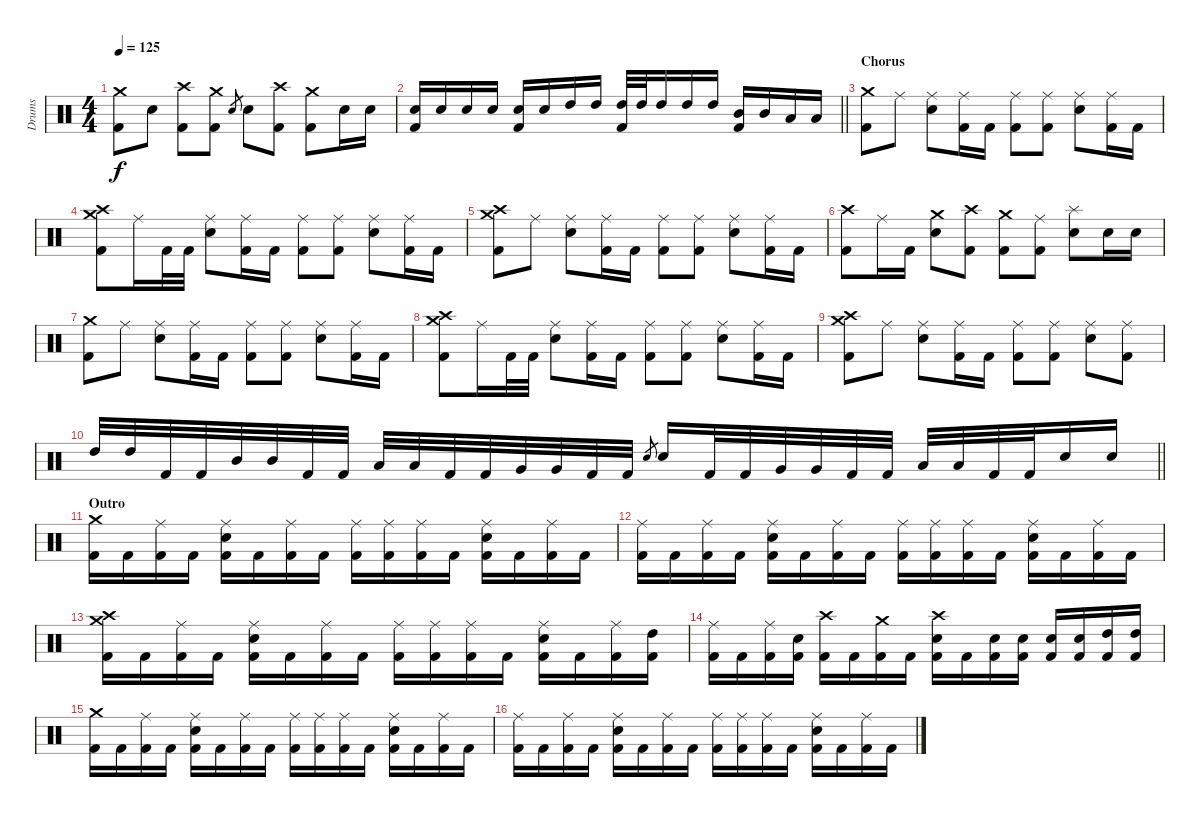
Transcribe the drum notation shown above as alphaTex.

\track ("Drums" "Drums") {instrument percussion}
\staff {score}
\articulation defaults
\ts (4 4)
\tempo 125
\clef neutral
\ks c
("Crash medium (hit)" "Kick (hit) 2").8{dy f} "Electric Snare (hit)".8 ("Crash high (hit)" "Kick (hit) 2").8 ("Crash medium (hit)" "Kick (hit) 2").8 "Electric Snare (hit)".8{gr} "Electric Snare (hit)".8 ("Crash high (hit)" "Kick (hit) 2").8 ("Crash medium (hit)" "Kick (hit) 2").8 "Electric Snare (hit)".16 "Electric Snare (hit)".16 |
\barLineRight lightlight
("Electric Snare (hit)" "Kick (hit) 2").16 "Electric Snare (hit)".16 "Electric Snare (hit)".16 "Electric Snare (hit)".16 ("Electric Snare (hit)" "Kick (hit) 2").16 "Electric Snare (hit)".16 "High Tom (hit)".16 "High Tom (hit)".16 ("High Tom (hit)" "Kick (hit) 2").32 "High Tom (hit)".32 "High Tom (hit)".16 "High Tom (hit)".16 "High Tom (hit)".16 ("Mid Tom (hit)" "Kick (hit) 2").16 "Mid Tom (hit)".16 "Low Tom (hit)".16 "Low Tom (hit)".16 |
\section ("" "Chorus")
("Crash medium (hit)" "Kick (hit) 2").8 "Ride (middle)".8 ("Ride (middle)" "Electric Snare (hit)").8 ("Ride (middle)" "Kick (hit) 2").16 "Kick (hit) 2".16 ("Ride (middle)" "Kick (hit) 2").8 ("Ride (middle)" "Kick (hit) 2").8 ("Ride (middle)" "Electric Snare (hit)").8 ("Ride (middle)" "Kick (hit) 2").16 "Kick (hit) 2".16 |
("Crash medium (hit)" "Crash high (hit)" "Kick (hit) 2").8 "Ride (middle)".16 "Kick (hit) 2".32 "Kick (hit) 2".32 ("Ride (middle)" "Electric Snare (hit)").8 ("Ride (middle)" "Kick (hit) 2").16 "Kick (hit) 2".16 ("Ride (middle)" "Kick (hit) 2").8 ("Ride (middle)" "Kick (hit) 2").8 ("Ride (middle)" "Electric Snare (hit)").8 ("Ride (middle)" "Kick (hit) 2").16 "Kick (hit) 2".16 |
("Crash medium (hit)" "Crash high (hit)" "Kick (hit) 2").8 "Ride (middle)".8 ("Ride (middle)" "Electric Snare (hit)").8 ("Ride (middle)" "Kick (hit) 2").16 "Kick (hit) 2".16 ("Ride (middle)" "Kick (hit) 2").8 ("Ride (middle)" "Kick (hit) 2").8 ("Ride (middle)" "Electric Snare (hit)").8 ("Ride (middle)" "Kick (hit) 2").16 "Kick (hit) 2".16 |
("Crash high (hit)" "Kick (hit) 2").8 "Ride (middle)".16 "Kick (hit) 2".16 ("Crash medium (hit)" "Electric Snare (hit)").8 ("Crash high (hit)" "Kick (hit) 2").8 ("Crash medium (hit)" "Kick (hit) 2").8 ("Ride (middle)" "Kick (hit) 2").8 ("Splash (hit)" "Electric Snare (hit)").8 "Electric Snare (hit)".16 "Electric Snare (hit)".16 |
("Crash medium (hit)" "Kick (hit) 2").8 "Ride (middle)".8 ("Ride (middle)" "Electric Snare (hit)").8 ("Ride (middle)" "Kick (hit) 2").16 "Kick (hit) 2".16 ("Ride (middle)" "Kick (hit) 2").8 ("Ride (middle)" "Kick (hit) 2").8 ("Ride (middle)" "Electric Snare (hit)").8 ("Ride (middle)" "Kick (hit) 2").16 "Kick (hit) 2".16 |
("Crash medium (hit)" "Crash high (hit)" "Kick (hit) 2").8 "Ride (middle)".16 "Kick (hit) 2".32 "Kick (hit) 2".32 ("Ride (middle)" "Electric Snare (hit)").8 ("Ride (middle)" "Kick (hit) 2").16 "Kick (hit) 2".16 ("Ride (middle)" "Kick (hit) 2").8 ("Ride (middle)" "Kick (hit) 2").8 ("Ride (middle)" "Electric Snare (hit)").8 ("Ride (middle)" "Kick (hit) 2").16 "Kick (hit) 2".16 |
("Crash medium (hit)" "Crash high (hit)" "Kick (hit) 2").8 "Ride (middle)".8 ("Ride (middle)" "Electric Snare (hit)").8 ("Ride (middle)" "Kick (hit) 2").16 "Kick (hit) 2".16 ("Ride (middle)" "Kick (hit) 2").8 ("Ride (middle)" "Kick (hit) 2").8 ("Ride (middle)" "Electric Snare (hit)").8 ("Ride (middle)" "Kick (hit) 2").8 |
\barLineRight lightlight "High Tom (hit)".32 "High Tom (hit)".32 "Kick (hit) 2".32 "Kick (hit) 2".32 "Mid Tom (hit)".32 "Mid Tom (hit)".32 "Kick (hit) 2".32 "Kick (hit) 2".32 "Low Tom (hit)".32 "Low Tom (hit)".32 "Kick (hit) 2".32 "Kick (hit) 2".32 "Very Low Tom (hit)".32 "Very Low Tom (hit)".32 "Kick (hit) 2".32 "Kick (hit) 2".32 "Electric Snare (hit)".8{gr} "Electric Snare (hit)".16 "Kick (hit) 2".32 "Kick (hit) 2".32 "Very Low Tom (hit)".32 "Very Low Tom (hit)".32 "Kick (hit) 2".32 "Kick (hit) 2".32 "Low Floor Tom (hit)".32 "Low Floor Tom (hit)".32 "Kick (hit) 2".32 "Kick (hit) 2".32 "Electric Snare (hit)".16 "Electric Snare (hit)".16
|
\section ("" "Outro")
("Crash medium (hit)" "Kick (hit) 2").16 "Kick (hit) 2".16 ("Ride (middle)" "Kick (hit) 2").16 "Kick (hit) 2".16 ("Ride (middle)" "Electric Snare (hit)" "Kick (hit) 2").16 "Kick (hit) 2".16 ("Ride (middle)" "Kick (hit) 2").16 "Kick (hit) 2".16 ("Ride (middle)" "Kick (hit) 2").16 ("Ride (middle)" "Kick (hit) 2").16 ("Ride (middle)" "Kick (hit) 2").16 "Kick (hit) 2".16 ("Ride (middle)" "Electric Snare (hit)" "Kick (hit) 2").16 "Kick (hit) 2".16 ("Ride (middle)" "Kick (hit) 2").16 "Kick (hit) 2".16 |
("Ride (middle)" "Kick (hit) 2").16 "Kick (hit) 2".16 ("Ride (middle)" "Kick (hit) 2").16 "Kick (hit) 2".16 ("Ride (middle)" "Electric Snare (hit)" "Kick (hit) 2").16 "Kick (hit) 2".16 ("Ride (middle)" "Kick (hit) 2").16 "Kick (hit) 2".16 ("Ride (middle)" "Kick (hit) 2").16 ("Ride (middle)" "Kick (hit) 2").16 ("Ride (middle)" "Kick (hit) 2").16 "Kick (hit) 2".16 ("Ride (middle)" "Electric Snare (hit)" "Kick (hit) 2").16 "Kick (hit) 2".16 ("Ride (middle)" "Kick (hit) 2").16 "Kick (hit) 2".16 |
("Crash medium (hit)" "Crash high (hit)" "Kick (hit) 2").16 "Kick (hit) 2".16 ("Ride (middle)" "Kick (hit) 2").16 "Kick (hit) 2".16 ("Ride (middle)" "Electric Snare (hit)" "Kick (hit) 2").16 "Kick (hit) 2".16 ("Ride (middle)" "Kick (hit) 2").16 "Kick (hit) 2".16 ("Ride (middle)" "Kick (hit) 2").16 ("Ride (middle)" "Kick (hit) 2").16 ("Ride (middle)" "Kick (hit) 2").16 "Kick (hit) 2".16 ("Ride (middle)" "Electric Snare (hit)" "Kick (hit) 2").16 "Kick (hit) 2".16 ("Ride (middle)" "Kick (hit) 2").16 ("High Tom (hit)" "Kick (hit) 2").16 |
("Ride (middle)" "Kick (hit) 2").16 "Kick (hit) 2".16 ("Ride (middle)" "Kick (hit) 2").16 ("Electric Snare (hit)" "Kick (hit) 2").16 ("Crash high (hit)" "Kick (hit) 2").16 "Kick (hit) 2".16 ("Crash medium (hit)" "Kick (hit) 2").16 "Kick (hit) 2".16 ("Crash high (hit)" "Electric Snare (hit)" "Kick (hit) 2").16 "Kick (hit) 2".16 ("Electric Snare (hit)" "Kick (hit) 2").16 ("Electric Snare (hit)" "Kick (hit) 2").16 ("Electric Snare (hit)" "Kick (hit) 2").16 ("Electric Snare (hit)" "Kick (hit) 2").16 ("High Tom (hit)" "Kick (hit) 2").16 ("High Tom (hit)" "Kick (hit) 2").16 |
("Crash medium (hit)" "Kick (hit) 2").16 "Kick (hit) 2".16 ("Ride (middle)" "Kick (hit) 2").16 "Kick (hit) 2".16 ("Ride (middle)" "Electric Snare (hit)" "Kick (hit) 2").16 "Kick (hit) 2".16 ("Ride (middle)" "Kick (hit) 2").16 "Kick (hit) 2".16 ("Ride (middle)" "Kick (hit) 2").16 ("Ride (middle)" "Kick (hit) 2").16 ("Ride (middle)" "Kick (hit) 2").16 "Kick (hit) 2".16 ("Ride (middle)" "Electric Snare (hit)" "Kick (hit) 2").16 "Kick (hit) 2".16 ("Ride (middle)" "Kick (hit) 2").16 "Kick (hit) 2".16 |
("Ride (middle)" "Kick (hit) 2").16 "Kick (hit) 2".16 ("Ride (middle)" "Kick (hit) 2").16 "Kick (hit) 2".16 ("Ride (middle)" "Electric Snare (hit)" "Kick (hit) 2").16 "Kick (hit) 2".16 ("Ride (middle)" "Kick (hit) 2").16 "Kick (hit) 2".16 ("Ride (middle)" "Kick (hit) 2").16 ("Ride (middle)" "Kick (hit) 2").16 ("Ride (middle)" "Kick (hit) 2").16 "Kick (hit) 2".16 ("Ride (middle)" "Electric Snare (hit)" "Kick (hit) 2").16 "Kick (hit) 2".16 ("Ride (middle)" "Kick (hit) 2").16 "Kick (hit) 2".16
